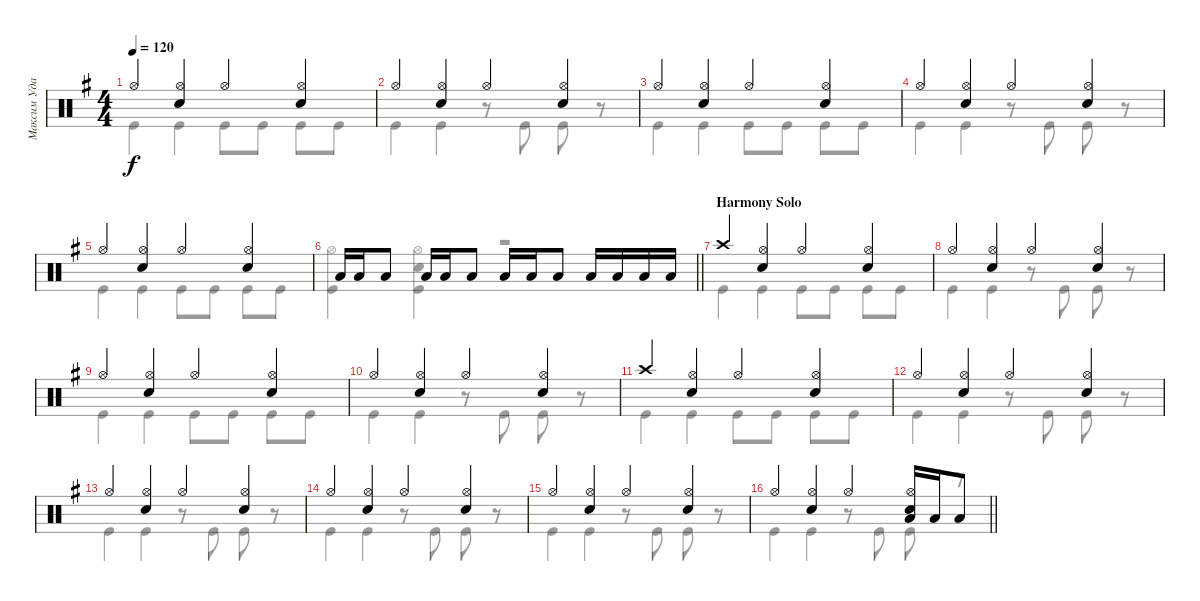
\track ("Максим Удалов" "Максим Уда") {instrument percussion}
\staff {score}
\articulation defaults
\voice
\ts (4 4)
\tempo 120
\clef neutral
\ks g "Hi-Hat (open)".4{dy f}
("Hi-Hat (open)" "Snare (hit) 2").4 "Hi-Hat (open)".4 ("Hi-Hat (open)" "Snare (hit) 2").4 |
"Hi-Hat (open)".4 ("Hi-Hat (open)" "Snare (hit) 2").4 "Hi-Hat (open)".4 ("Hi-Hat (open)" "Snare (hit) 2").4 |
"Hi-Hat (open)".4 ("Hi-Hat (open)" "Snare (hit) 2").4 "Hi-Hat (open)".4 ("Hi-Hat (open)" "Snare (hit) 2").4 |
"Hi-Hat (open)".4 ("Hi-Hat (open)" "Snare (hit) 2").4 "Hi-Hat (open)".4 ("Hi-Hat (open)" "Snare (hit) 2").4 |
"Hi-Hat (open)".4 ("Hi-Hat (open)" "Snare (hit) 2").4 "Hi-Hat (open)".4 ("Hi-Hat (open)" "Snare (hit) 2").4 |
\barLineRight lightlight "Low Tom (hit)".16 "Low Tom (hit)".16 "Low Tom (hit)".8 "Low Tom (hit)".16 "Low Tom (hit)".16 "Low Tom (hit)".8 "Low Tom (hit)".16 "Low Tom (hit)".16 "Low Tom (hit)".8 "Low Tom (hit)".16 "Low Tom (hit)".16 "Low Tom (hit)".16 "Low Tom (hit)".16
|
\section ("" "Harmony Solo")
"Crash high (hit)".4 ("Hi-Hat (open)" "Snare (hit) 2").4 "Hi-Hat (open)".4 ("Hi-Hat (open)" "Snare (hit) 2").4 |
"Hi-Hat (open)".4 ("Hi-Hat (open)" "Snare (hit) 2").4 "Hi-Hat (open)".4 ("Hi-Hat (open)" "Snare (hit) 2").4 |
"Hi-Hat (open)".4 ("Hi-Hat (open)" "Snare (hit) 2").4 "Hi-Hat (open)".4 ("Hi-Hat (open)" "Snare (hit) 2").4 |
"Hi-Hat (open)".4 ("Hi-Hat (open)" "Snare (hit) 2").4 "Hi-Hat (open)".4 ("Hi-Hat (open)" "Snare (hit) 2").4 |
"Crash high (hit)".4 ("Hi-Hat (open)" "Snare (hit) 2").4 "Hi-Hat (open)".4 ("Hi-Hat (open)" "Snare (hit) 2").4 |
"Hi-Hat (open)".4 ("Hi-Hat (open)" "Snare (hit) 2").4 "Hi-Hat (open)".4 ("Hi-Hat (open)" "Snare (hit) 2").4 |
"Hi-Hat (open)".4 ("Hi-Hat (open)" "Snare (hit) 2").4 "Hi-Hat (open)".4 ("Hi-Hat (open)" "Snare (hit) 2").4 |
"Hi-Hat (open)".4 ("Hi-Hat (open)" "Snare (hit) 2").4 "Hi-Hat (open)".4 ("Hi-Hat (open)" "Snare (hit) 2").4 |
"Hi-Hat (open)".4 ("Hi-Hat (open)" "Snare (hit) 2").4 "Hi-Hat (open)".4 ("Hi-Hat (open)" "Snare (hit) 2").4 |
\barLineRight lightlight "Hi-Hat (open)".4
("Hi-Hat (open)" "Snare (hit) 2").4 "Hi-Hat (open)".4 ("Hi-Hat (open)" "Snare (hit) 2" "Low Tom (hit)").16 "Low Tom (hit)".16 "Low Tom (hit)".8
\voice
\clef neutral
\ottava regular
\simile none
\ks g "Kick (hit)".4{dy f} "Kick (hit)".4 "Kick (hit)".8 "Kick (hit)".8 "Kick (hit)".8 "Kick (hit)".8
|
"Kick (hit)".4 "Kick (hit)".4 r.8 "Kick (hit)".8 "Kick (hit)".8 r.8 |
"Kick (hit)".4 "Kick (hit)".4 "Kick (hit)".8 "Kick (hit)".8 "Kick (hit)".8 "Kick (hit)".8 |
"Kick (hit)".4 "Kick (hit)".4 r.8 "Kick (hit)".8 "Kick (hit)".8 r.8 |
"Kick (hit)".4 "Kick (hit)".4 "Kick (hit)".8 "Kick (hit)".8 "Kick (hit)".8 "Kick (hit)".8 |
\barLineRight lightlight
("Kick (hit)" "Hi-Hat (open)").4 ("Kick (hit)" "Hi-Hat (open)" "Snare (hit) 2").4 r.2 |
"Kick (hit)".4 "Kick (hit)".4 "Kick (hit)".8 "Kick (hit)".8 "Kick (hit)".8 "Kick (hit)".8 |
"Kick (hit)".4 "Kick (hit)".4 r.8 "Kick (hit)".8 "Kick (hit)".8 r.8 |
"Kick (hit)".4 "Kick (hit)".4 "Kick (hit)".8 "Kick (hit)".8 "Kick (hit)".8 "Kick (hit)".8 |
"Kick (hit)".4 "Kick (hit)".4 r.8 "Kick (hit)".8 "Kick (hit)".8 r.8 |
"Kick (hit)".4 "Kick (hit)".4 "Kick (hit)".8 "Kick (hit)".8 "Kick (hit)".8 "Kick (hit)".8 |
"Kick (hit)".4 "Kick (hit)".4 r.8 "Kick (hit)".8 "Kick (hit)".8 r.8 |
"Kick (hit)".4 "Kick (hit)".4 r.8 "Kick (hit)".8 "Kick (hit)".8 r.8 |
"Kick (hit)".4 "Kick (hit)".4 r.8 "Kick (hit)".8 "Kick (hit)".8 r.8 |
"Kick (hit)".4 "Kick (hit)".4 r.8 "Kick (hit)".8 "Kick (hit)".8 r.8 |
\barLineRight lightlight "Kick (hit)".4 "Kick (hit)".4
r.8 "Kick (hit)".8 "Kick (hit)".8 r.8
